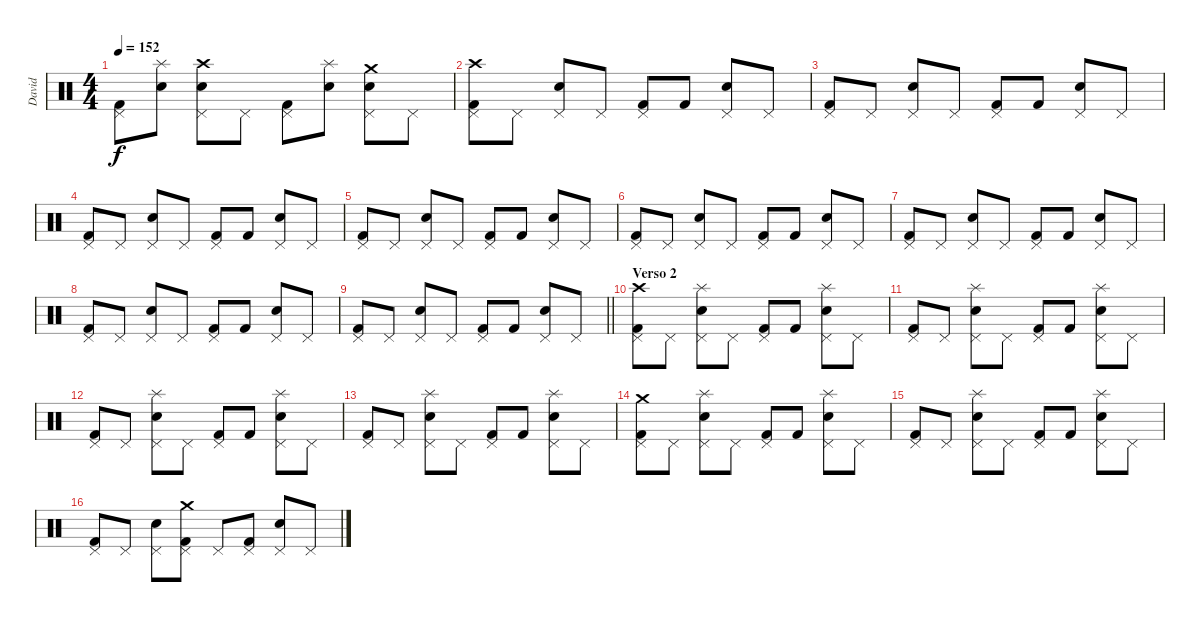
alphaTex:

\track ("David" "David") {instrument percussion}
\staff {score}
\articulation defaults
\ts (4 4)
\tempo 152
\clef neutral
\ks c
("Kick (hit) 2" "Pedal Hi-Hat (hit)").8{dy f} ("Snare (hit) 2" "Splash (hit)").8 ("Snare (hit) 2" "Pedal Hi-Hat (hit)" "Crash high (hit)").8 "Pedal Hi-Hat (hit)".8 ("Kick (hit) 2" "Pedal Hi-Hat (hit)").8 ("Snare (hit) 2" "Splash (hit)").8 ("Snare (hit) 2" "Pedal Hi-Hat (hit)" "Crash medium (hit)").8 "Pedal Hi-Hat (hit)".8 |
("Kick (hit) 2" "Pedal Hi-Hat (hit)" "Crash high (hit)").8 "Pedal Hi-Hat (hit)".8 ("Snare (hit) 2" "Pedal Hi-Hat (hit)").8 "Pedal Hi-Hat (hit)".8 ("Kick (hit) 2" "Pedal Hi-Hat (hit)").8 "Kick (hit) 2".8 ("Snare (hit) 2" "Pedal Hi-Hat (hit)").8 "Pedal Hi-Hat (hit)".8 |
("Kick (hit) 2" "Pedal Hi-Hat (hit)").8 "Pedal Hi-Hat (hit)".8 ("Snare (hit) 2" "Pedal Hi-Hat (hit)").8 "Pedal Hi-Hat (hit)".8 ("Kick (hit) 2" "Pedal Hi-Hat (hit)").8 "Kick (hit) 2".8 ("Snare (hit) 2" "Pedal Hi-Hat (hit)").8 "Pedal Hi-Hat (hit)".8 |
("Kick (hit) 2" "Pedal Hi-Hat (hit)").8 "Pedal Hi-Hat (hit)".8 ("Snare (hit) 2" "Pedal Hi-Hat (hit)").8 "Pedal Hi-Hat (hit)".8 ("Kick (hit) 2" "Pedal Hi-Hat (hit)").8 "Kick (hit) 2".8 ("Snare (hit) 2" "Pedal Hi-Hat (hit)").8 "Pedal Hi-Hat (hit)".8 |
("Kick (hit) 2" "Pedal Hi-Hat (hit)").8 "Pedal Hi-Hat (hit)".8 ("Snare (hit) 2" "Pedal Hi-Hat (hit)").8 "Pedal Hi-Hat (hit)".8 ("Kick (hit) 2" "Pedal Hi-Hat (hit)").8 "Kick (hit) 2".8 ("Snare (hit) 2" "Pedal Hi-Hat (hit)").8 "Pedal Hi-Hat (hit)".8 |
("Kick (hit) 2" "Pedal Hi-Hat (hit)").8 "Pedal Hi-Hat (hit)".8 ("Snare (hit) 2" "Pedal Hi-Hat (hit)").8 "Pedal Hi-Hat (hit)".8 ("Kick (hit) 2" "Pedal Hi-Hat (hit)").8 "Kick (hit) 2".8 ("Snare (hit) 2" "Pedal Hi-Hat (hit)").8 "Pedal Hi-Hat (hit)".8 |
("Kick (hit) 2" "Pedal Hi-Hat (hit)").8 "Pedal Hi-Hat (hit)".8 ("Snare (hit) 2" "Pedal Hi-Hat (hit)").8 "Pedal Hi-Hat (hit)".8 ("Kick (hit) 2" "Pedal Hi-Hat (hit)").8 "Kick (hit) 2".8 ("Snare (hit) 2" "Pedal Hi-Hat (hit)").8 "Pedal Hi-Hat (hit)".8 |
("Kick (hit) 2" "Pedal Hi-Hat (hit)").8 "Pedal Hi-Hat (hit)".8 ("Snare (hit) 2" "Pedal Hi-Hat (hit)").8 "Pedal Hi-Hat (hit)".8 ("Kick (hit) 2" "Pedal Hi-Hat (hit)").8 "Kick (hit) 2".8 ("Snare (hit) 2" "Pedal Hi-Hat (hit)").8 "Pedal Hi-Hat (hit)".8 |
\barLineRight lightlight
("Kick (hit) 2" "Pedal Hi-Hat (hit)").8 "Pedal Hi-Hat (hit)".8 ("Snare (hit) 2" "Pedal Hi-Hat (hit)").8 "Pedal Hi-Hat (hit)".8 ("Kick (hit) 2" "Pedal Hi-Hat (hit)").8 "Kick (hit) 2".8 ("Snare (hit) 2" "Pedal Hi-Hat (hit)").8 "Pedal Hi-Hat (hit)".8 |
\section ("" "Verso 2")
("Kick (hit) 2" "Pedal Hi-Hat (hit)" "Crash high (hit)").8 "Pedal Hi-Hat (hit)".8 ("Snare (hit) 2" "Pedal Hi-Hat (hit)" "Splash (hit)").8 "Pedal Hi-Hat (hit)".8 ("Kick (hit) 2" "Pedal Hi-Hat (hit)").8 "Kick (hit) 2".8 ("Snare (hit) 2" "Pedal Hi-Hat (hit)" "Splash (hit)").8 "Pedal Hi-Hat (hit)".8 |
("Kick (hit) 2" "Pedal Hi-Hat (hit)").8 "Pedal Hi-Hat (hit)".8 ("Snare (hit) 2" "Pedal Hi-Hat (hit)" "Splash (hit)").8 "Pedal Hi-Hat (hit)".8 ("Kick (hit) 2" "Pedal Hi-Hat (hit)").8 "Kick (hit) 2".8 ("Snare (hit) 2" "Pedal Hi-Hat (hit)" "Splash (hit)").8 "Pedal Hi-Hat (hit)".8 |
("Kick (hit) 2" "Pedal Hi-Hat (hit)").8 "Pedal Hi-Hat (hit)".8 ("Snare (hit) 2" "Pedal Hi-Hat (hit)" "Splash (hit)").8 "Pedal Hi-Hat (hit)".8 ("Kick (hit) 2" "Pedal Hi-Hat (hit)").8 "Kick (hit) 2".8 ("Snare (hit) 2" "Pedal Hi-Hat (hit)" "Splash (hit)").8 "Pedal Hi-Hat (hit)".8 |
("Kick (hit) 2" "Pedal Hi-Hat (hit)").8 "Pedal Hi-Hat (hit)".8 ("Snare (hit) 2" "Pedal Hi-Hat (hit)" "Splash (hit)").8 "Pedal Hi-Hat (hit)".8 ("Kick (hit) 2" "Pedal Hi-Hat (hit)").8 "Kick (hit) 2".8 ("Snare (hit) 2" "Pedal Hi-Hat (hit)" "Splash (hit)").8 "Pedal Hi-Hat (hit)".8 |
("Kick (hit) 2" "Pedal Hi-Hat (hit)" "Crash medium (hit)").8 "Pedal Hi-Hat (hit)".8 ("Snare (hit) 2" "Pedal Hi-Hat (hit)" "Splash (hit)").8 "Pedal Hi-Hat (hit)".8 ("Kick (hit) 2" "Pedal Hi-Hat (hit)").8 "Kick (hit) 2".8 ("Snare (hit) 2" "Pedal Hi-Hat (hit)" "Splash (hit)").8 "Pedal Hi-Hat (hit)".8 |
("Kick (hit) 2" "Pedal Hi-Hat (hit)").8 "Pedal Hi-Hat (hit)".8 ("Snare (hit) 2" "Pedal Hi-Hat (hit)" "Splash (hit)").8 "Pedal Hi-Hat (hit)".8 ("Kick (hit) 2" "Pedal Hi-Hat (hit)").8 "Kick (hit) 2".8 ("Snare (hit) 2" "Pedal Hi-Hat (hit)" "Splash (hit)").8 "Pedal Hi-Hat (hit)".8 |
("Kick (hit) 2" "Pedal Hi-Hat (hit)").8 "Pedal Hi-Hat (hit)".8 ("Snare (hit) 2" "Pedal Hi-Hat (hit)").8 ("Kick (hit) 2" "Pedal Hi-Hat (hit)" "Crash medium (hit)").8 "Pedal Hi-Hat (hit)".8 ("Kick (hit) 2" "Pedal Hi-Hat (hit)").8 ("Snare (hit) 2" "Pedal Hi-Hat (hit)").8 "Pedal Hi-Hat (hit)".8
